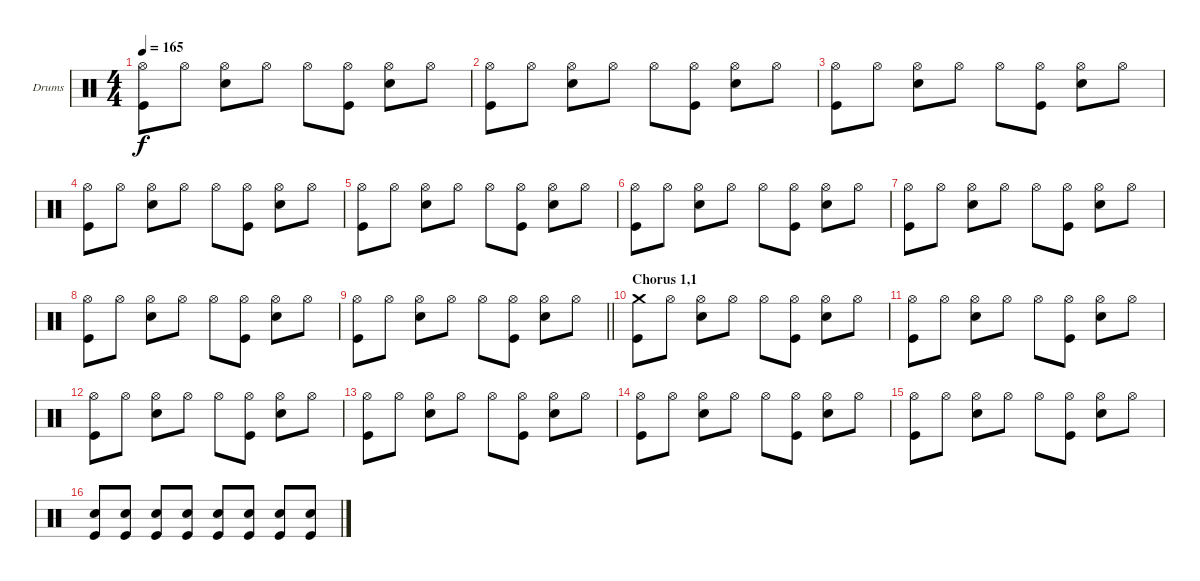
\bracketExtendMode groupsimilarinstruments
\firstSystemTrackNameOrientation horizontal
\otherSystemsTrackNameOrientation horizontal
\track ("Fabrizio" "Drums") {instrument percussion}
\staff {score}
\articulation defaults
\ts (4 4)
\tempo 165
\clef neutral
\ks c
("Kick (hit)" "Hi-Hat (open)").8{dy f} "Hi-Hat (open)".8 ("Snare (hit) 2" "Hi-Hat (open)").8 "Hi-Hat (open)".8 "Hi-Hat (open)".8 ("Kick (hit)" "Hi-Hat (open)").8 ("Snare (hit) 2" "Hi-Hat (open)").8 "Hi-Hat (open)".8 |
("Kick (hit)" "Hi-Hat (open)").8 "Hi-Hat (open)".8 ("Snare (hit) 2" "Hi-Hat (open)").8 "Hi-Hat (open)".8 "Hi-Hat (open)".8 ("Kick (hit)" "Hi-Hat (open)").8 ("Snare (hit) 2" "Hi-Hat (open)").8 "Hi-Hat (open)".8 |
("Kick (hit)" "Hi-Hat (open)").8 "Hi-Hat (open)".8 ("Snare (hit) 2" "Hi-Hat (open)").8 "Hi-Hat (open)".8 "Hi-Hat (open)".8 ("Kick (hit)" "Hi-Hat (open)").8 ("Snare (hit) 2" "Hi-Hat (open)").8 "Hi-Hat (open)".8 |
("Kick (hit)" "Hi-Hat (open)").8 "Hi-Hat (open)".8 ("Snare (hit) 2" "Hi-Hat (open)").8 "Hi-Hat (open)".8 "Hi-Hat (open)".8 ("Kick (hit)" "Hi-Hat (open)").8 ("Snare (hit) 2" "Hi-Hat (open)").8 "Hi-Hat (open)".8 |
("Kick (hit)" "Hi-Hat (open)").8 "Hi-Hat (open)".8 ("Snare (hit) 2" "Hi-Hat (open)").8 "Hi-Hat (open)".8 "Hi-Hat (open)".8 ("Kick (hit)" "Hi-Hat (open)").8 ("Snare (hit) 2" "Hi-Hat (open)").8 "Hi-Hat (open)".8 |
("Kick (hit)" "Hi-Hat (open)").8 "Hi-Hat (open)".8 ("Snare (hit) 2" "Hi-Hat (open)").8 "Hi-Hat (open)".8 "Hi-Hat (open)".8 ("Kick (hit)" "Hi-Hat (open)").8 ("Snare (hit) 2" "Hi-Hat (open)").8 "Hi-Hat (open)".8 |
("Kick (hit)" "Hi-Hat (open)").8 "Hi-Hat (open)".8 ("Snare (hit) 2" "Hi-Hat (open)").8 "Hi-Hat (open)".8 "Hi-Hat (open)".8 ("Kick (hit)" "Hi-Hat (open)").8 ("Snare (hit) 2" "Hi-Hat (open)").8 "Hi-Hat (open)".8 |
("Kick (hit)" "Hi-Hat (open)").8 "Hi-Hat (open)".8 ("Snare (hit) 2" "Hi-Hat (open)").8 "Hi-Hat (open)".8 "Hi-Hat (open)".8 ("Kick (hit)" "Hi-Hat (open)").8 ("Snare (hit) 2" "Hi-Hat (open)").8 "Hi-Hat (open)".8 |
\barLineRight lightlight
("Kick (hit)" "Hi-Hat (open)").8 "Hi-Hat (open)".8 ("Snare (hit) 2" "Hi-Hat (open)").8 "Hi-Hat (open)".8 "Hi-Hat (open)".8 ("Kick (hit)" "Hi-Hat (open)").8 ("Snare (hit) 2" "Hi-Hat (open)").8 "Hi-Hat (open)".8 |
\section ("" "Chorus 1,1")
("Crash medium (hit)" "Kick (hit)").8 "Hi-Hat (open)".8 ("Hi-Hat (open)" "Snare (hit) 2").8 "Hi-Hat (open)".8 "Hi-Hat (open)".8 ("Kick (hit)" "Hi-Hat (open)").8 ("Hi-Hat (open)" "Snare (hit) 2").8 "Hi-Hat (open)".8 |
("Kick (hit)" "Hi-Hat (open)").8 "Hi-Hat (open)".8 ("Snare (hit) 2" "Hi-Hat (open)").8 "Hi-Hat (open)".8 "Hi-Hat (open)".8 ("Kick (hit)" "Hi-Hat (open)").8 ("Snare (hit) 2" "Hi-Hat (open)").8 "Hi-Hat (open)".8 |
("Kick (hit)" "Hi-Hat (open)").8 "Hi-Hat (open)".8 ("Snare (hit) 2" "Hi-Hat (open)").8 "Hi-Hat (open)".8 "Hi-Hat (open)".8 ("Kick (hit)" "Hi-Hat (open)").8 ("Snare (hit) 2" "Hi-Hat (open)").8 "Hi-Hat (open)".8 |
("Kick (hit)" "Hi-Hat (open)").8 "Hi-Hat (open)".8 ("Snare (hit) 2" "Hi-Hat (open)").8 "Hi-Hat (open)".8 "Hi-Hat (open)".8 ("Kick (hit)" "Hi-Hat (open)").8 ("Snare (hit) 2" "Hi-Hat (open)").8 "Hi-Hat (open)".8 |
("Kick (hit)" "Hi-Hat (open)").8 "Hi-Hat (open)".8 ("Snare (hit) 2" "Hi-Hat (open)").8 "Hi-Hat (open)".8 "Hi-Hat (open)".8 ("Kick (hit)" "Hi-Hat (open)").8 ("Snare (hit) 2" "Hi-Hat (open)").8 "Hi-Hat (open)".8 |
("Kick (hit)" "Hi-Hat (open)").8 "Hi-Hat (open)".8 ("Snare (hit) 2" "Hi-Hat (open)").8 "Hi-Hat (open)".8 "Hi-Hat (open)".8 ("Kick (hit)" "Hi-Hat (open)").8 ("Snare (hit) 2" "Hi-Hat (open)").8 "Hi-Hat (open)".8 |
("Snare (hit) 2" "Kick (hit)").8 ("Snare (hit) 2" "Kick (hit)").8 ("Snare (hit) 2" "Kick (hit)").8 ("Snare (hit) 2" "Kick (hit)").8 ("Snare (hit) 2" "Kick (hit)").8 ("Snare (hit) 2" "Kick (hit)").8 ("Snare (hit) 2" "Kick (hit)").8 ("Snare (hit) 2" "Kick (hit)").8
